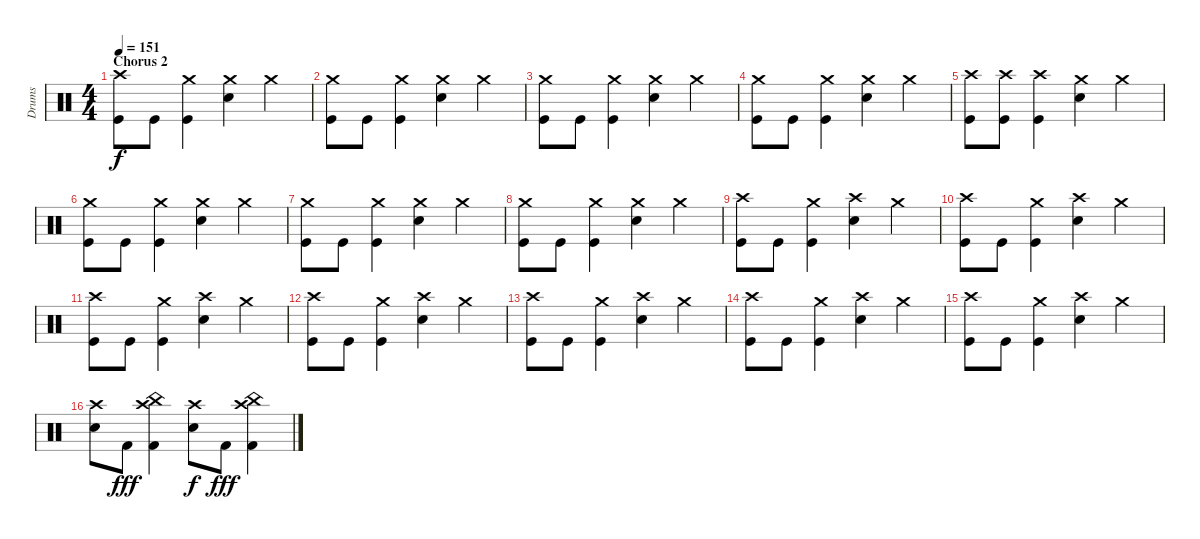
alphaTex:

\track ("Drums" "Drums") {instrument percussion}
\staff {score}
\articulation defaults
\ts (4 4)
\section ("" "Chorus 2")
\tempo 151
\clef neutral
\ks c
("Crash high (hit)" "Kick (hit)").8{dy f} "Kick (hit)".8 ("Crash medium (hit)" "Kick (hit)").4 ("Crash medium (hit)" "Electric Snare (hit)").4 "Crash medium (hit)".4 |
("Crash medium (hit)" "Kick (hit)").8 "Kick (hit)".8 ("Crash medium (hit)" "Kick (hit)").4 ("Crash medium (hit)" "Electric Snare (hit)").4 "Crash medium (hit)".4 |
("Crash medium (hit)" "Kick (hit)").8 "Kick (hit)".8 ("Crash medium (hit)" "Kick (hit)").4 ("Crash medium (hit)" "Electric Snare (hit)").4 "Crash medium (hit)".4 |
("Crash medium (hit)" "Kick (hit)").8 "Kick (hit)".8 ("Crash medium (hit)" "Kick (hit)").4 ("Crash medium (hit)" "Electric Snare (hit)").4 "Crash medium (hit)".4 |
("Crash high (hit)" "Kick (hit)").8 ("Crash high (hit)" "Kick (hit)").8 ("Crash high (hit)" "Kick (hit)").4 ("Crash medium (hit)" "Electric Snare (hit)").4 "Crash medium (hit)".4 |
("Crash medium (hit)" "Kick (hit)").8 "Kick (hit)".8 ("Crash medium (hit)" "Kick (hit)").4 ("Crash medium (hit)" "Electric Snare (hit)").4 "Crash medium (hit)".4 |
("Crash medium (hit)" "Kick (hit)").8 "Kick (hit)".8 ("Crash medium (hit)" "Kick (hit)").4 ("Crash medium (hit)" "Electric Snare (hit)").4 "Crash medium (hit)".4 |
("Crash medium (hit)" "Kick (hit)").8 "Kick (hit)".8 ("Crash medium (hit)" "Kick (hit)").4 ("Crash medium (hit)" "Electric Snare (hit)").4 "Crash medium (hit)".4 |
("Crash high (hit)" "Kick (hit)").8 "Kick (hit)".8 ("Crash medium (hit)" "Kick (hit)").4 ("Crash high (hit)" "Electric Snare (hit)").4 "Crash medium (hit)".4 |
("Crash high (hit)" "Kick (hit)").8 "Kick (hit)".8 ("Crash medium (hit)" "Kick (hit)").4 ("Crash high (hit)" "Electric Snare (hit)").4 "Crash medium (hit)".4 |
("Crash high (hit)" "Kick (hit)").8 "Kick (hit)".8 ("Crash medium (hit)" "Kick (hit)").4 ("Crash high (hit)" "Electric Snare (hit)").4 "Crash medium (hit)".4 |
("Crash high (hit)" "Kick (hit)").8 "Kick (hit)".8 ("Crash medium (hit)" "Kick (hit)").4 ("Crash high (hit)" "Electric Snare (hit)").4 "Crash medium (hit)".4 |
("Crash high (hit)" "Kick (hit)").8 "Kick (hit)".8 ("Crash medium (hit)" "Kick (hit)").4 ("Crash high (hit)" "Electric Snare (hit)").4 "Crash medium (hit)".4 |
("Crash high (hit)" "Kick (hit)").8 "Kick (hit)".8 ("Crash medium (hit)" "Kick (hit)").4 ("Crash high (hit)" "Electric Snare (hit)").4 "Crash medium (hit)".4 |
("Crash high (hit)" "Kick (hit)").8 "Kick (hit)".8 ("Crash medium (hit)" "Kick (hit)").4 ("Crash high (hit)" "Electric Snare (hit)").4 "Crash medium (hit)".4 |
("Crash high (hit)" "Electric Snare (hit)").8 "Kick (hit) 2".8{dy fff} ("Crash high (hit)" "China (hit)" "Kick (hit) 2").4 ("Crash high (hit)" "Electric Snare (hit)").8{dy f} "Kick (hit) 2".8{dy fff} ("Crash high (hit)" "China (hit)" "Kick (hit) 2").4
